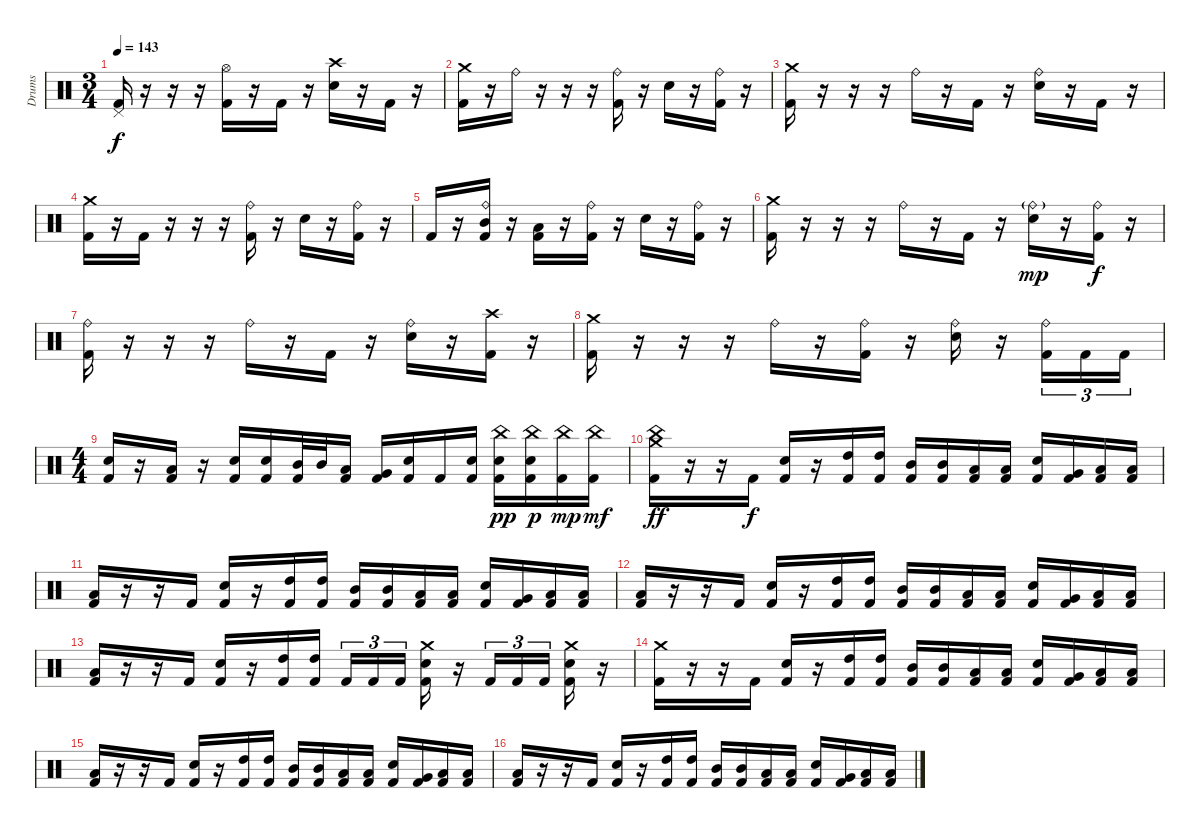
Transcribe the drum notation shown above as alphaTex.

\track ("Drums" "Drums") {instrument percussion}
\staff {score}
\articulation defaults
\ts (3 4)
\tempo 143
\clef neutral
\ks c
("Pedal Hi-Hat (hit)" "Kick (hit) 2").16{dy f} r.16 r.16 r.16 ("Hi-Hat (open)" "Kick (hit) 2").16 r.16 "Kick (hit) 2".16 r.16 ("Crash high (hit)" "Electric Snare (hit)").16 r.16 "Kick (hit) 2".16 r.16 |
("Crash medium (hit)" "Kick (hit) 2").16 r.16 "Ride (bell)".16 r.16 r.16 r.16 ("Ride (bell)" "Kick (hit) 2").16 r.16 "Electric Snare (hit)".16 r.16 ("Ride (bell)" "Kick (hit) 2").16 r.16 |
("Crash medium (hit)" "Kick (hit) 2").16 r.16 r.16 r.16 "Ride (bell)".16 r.16 "Kick (hit) 2".16 r.16 ("Ride (bell)" "Electric Snare (hit)").16 r.16 "Kick (hit) 2".16 r.16 |
\section ("" "")
("Crash medium (hit)" "Kick (hit) 2").16 r.16 "Kick (hit) 2".16 r.16 r.16 r.16 ("Ride (bell)" "Kick (hit) 2").16 r.16 "Electric Snare (hit)".16 r.16 ("Ride (bell)" "Kick (hit) 2").16 r.16 |
"Kick (hit) 2".16 r.16 ("Ride (bell)" "Mid Tom (hit)" "Kick (hit) 2").16 r.16 ("Low Tom (hit)" "Kick (hit) 2").16 r.16 ("Ride (bell)" "Kick (hit) 2").16 r.16 "Electric Snare (hit)".16 r.16 ("Ride (bell)" "Kick (hit) 2").16 r.16 |
("Crash medium (hit)" "Kick (hit) 2").16 r.16 r.16 r.16 "Ride (bell)".16 r.16 "Kick (hit) 2".16 r.16 ("Ride (bell)"{g} "Electric Snare (hit)").16{dy mp} r.16 ("Ride (bell)" "Kick (hit) 2").16{dy f} r.16 |
("Ride (bell)" "Kick (hit) 2").16 r.16 r.16 r.16 "Ride (bell)".16 r.16 "Kick (hit) 2".16 r.16 ("Ride (bell)" "Electric Snare (hit)").16 r.16 ("Crash high (hit)" "Kick (hit) 2").16 r.16 |
("Crash medium (hit)" "Kick (hit) 2").16 r.16 r.16 r.16 "Ride (bell)".16 r.16 ("Ride (bell)" "Kick (hit) 2").16 r.16 ("Ride (bell)" "Electric Snare (hit)").16 r.16 ("Ride (bell)" "Kick (hit) 2").16{tu (3 2)} "Kick (hit) 2".16{tu (3 2)} "Kick (hit) 2".16{tu (3 2)} |
\ts (4 4)
("Electric Snare (hit)" "Kick (hit) 2").16 r.16 ("Low Tom (hit)" "Kick (hit) 2").16 r.16 ("Electric Snare (hit)" "Kick (hit) 2").16 ("Electric Snare (hit)" "Kick (hit) 2").16 ("Mid Tom (hit)" "Kick (hit) 2").32 "Mid Tom (hit)".32 ("Low Tom (hit)" "Kick (hit) 2").16 ("Very Low Tom (hit)" "Kick (hit) 2").16 ("Electric Snare (hit)" "Kick (hit) 2").16 "Kick (hit) 2".16 ("Electric Snare (hit)" "Kick (hit) 2").16 ("China (hit)" "Electric Snare (hit)" "Kick (hit) 2").16{dy pp} ("China (hit)" "Electric Snare (hit)" "Kick (hit) 2").16{dy p} ("China (hit)" "Kick (hit) 2").16{dy mp} ("China (hit)" "Kick (hit) 2").16{dy mf} |
\section ("" "")
("Crash medium (hit)" "China (hit)" "Kick (hit) 2").16{dy ff} r.16 r.16 "Kick (hit) 2".16{dy f} ("Electric Snare (hit)" "Kick (hit) 2").16 r.16 ("High Tom (hit)" "Kick (hit) 2").16 ("High Tom (hit)" "Kick (hit) 2").16 ("Mid Tom (hit)" "Kick (hit) 2").16 ("Mid Tom (hit)" "Kick (hit) 2").16 ("Low Tom (hit)" "Kick (hit) 2").16 ("Low Tom (hit)" "Kick (hit) 2").16 ("Electric Snare (hit)" "Kick (hit) 2").16 ("Very Low Tom (hit)" "Kick (hit) 2").16 ("Low Floor Tom (hit)" "Kick (hit) 2").16 ("Low Floor Tom (hit)" "Kick (hit) 2").16 |
("Low Floor Tom (hit)" "Kick (hit) 2").16 r.16 r.16 "Kick (hit) 2".16 ("Electric Snare (hit)" "Kick (hit) 2").16 r.16 ("High Tom (hit)" "Kick (hit) 2").16 ("High Tom (hit)" "Kick (hit) 2").16 ("Mid Tom (hit)" "Kick (hit) 2").16 ("Mid Tom (hit)" "Kick (hit) 2").16 ("Low Tom (hit)" "Kick (hit) 2").16 ("Low Tom (hit)" "Kick (hit) 2").16 ("Electric Snare (hit)" "Kick (hit) 2").16 ("Very Low Tom (hit)" "Kick (hit) 2").16 ("Low Floor Tom (hit)" "Kick (hit) 2").16 ("Low Floor Tom (hit)" "Kick (hit) 2").16 |
("Low Floor Tom (hit)" "Kick (hit) 2").16 r.16 r.16 "Kick (hit) 2".16 ("Electric Snare (hit)" "Kick (hit) 2").16 r.16 ("High Tom (hit)" "Kick (hit) 2").16 ("High Tom (hit)" "Kick (hit) 2").16 ("Mid Tom (hit)" "Kick (hit) 2").16 ("Mid Tom (hit)" "Kick (hit) 2").16 ("Low Tom (hit)" "Kick (hit) 2").16 ("Low Tom (hit)" "Kick (hit) 2").16 ("Electric Snare (hit)" "Kick (hit) 2").16 ("Very Low Tom (hit)" "Kick (hit) 2").16 ("Low Floor Tom (hit)" "Kick (hit) 2").16 ("Low Floor Tom (hit)" "Kick (hit) 2").16 |
("Low Floor Tom (hit)" "Kick (hit) 2").16 r.16 r.16 "Kick (hit) 2".16 ("Electric Snare (hit)" "Kick (hit) 2").16 r.16 ("High Tom (hit)" "Kick (hit) 2").16 ("High Tom (hit)" "Kick (hit) 2").16 "Kick (hit) 2".16{tu (3 2)} "Kick (hit) 2".16{tu (3 2)} "Kick (hit) 2".16{tu (3 2)} ("Crash medium (hit)" "Electric Snare (hit)" "Kick (hit) 2").16 r.16 "Kick (hit) 2".16{tu (3 2)} "Kick (hit) 2".16{tu (3 2)} "Kick (hit) 2".16{tu (3 2)} ("Crash medium (hit)" "Electric Snare (hit)" "Kick (hit) 2").16 r.16 |
("Crash medium (hit)" "Kick (hit) 2").16 r.16 r.16 "Kick (hit) 2".16 ("Electric Snare (hit)" "Kick (hit) 2").16 r.16 ("High Tom (hit)" "Kick (hit) 2").16 ("High Tom (hit)" "Kick (hit) 2").16 ("Mid Tom (hit)" "Kick (hit) 2").16 ("Mid Tom (hit)" "Kick (hit) 2").16 ("Low Tom (hit)" "Kick (hit) 2").16 ("Low Tom (hit)" "Kick (hit) 2").16 ("Electric Snare (hit)" "Kick (hit) 2").16 ("Very Low Tom (hit)" "Kick (hit) 2").16 ("Low Floor Tom (hit)" "Kick (hit) 2").16 ("Low Floor Tom (hit)" "Kick (hit) 2").16 |
("Low Floor Tom (hit)" "Kick (hit) 2").16 r.16 r.16 "Kick (hit) 2".16 ("Electric Snare (hit)" "Kick (hit) 2").16 r.16 ("High Tom (hit)" "Kick (hit) 2").16 ("High Tom (hit)" "Kick (hit) 2").16 ("Mid Tom (hit)" "Kick (hit) 2").16 ("Mid Tom (hit)" "Kick (hit) 2").16 ("Low Tom (hit)" "Kick (hit) 2").16 ("Low Tom (hit)" "Kick (hit) 2").16 ("Electric Snare (hit)" "Kick (hit) 2").16 ("Very Low Tom (hit)" "Kick (hit) 2").16 ("Low Floor Tom (hit)" "Kick (hit) 2").16 ("Low Floor Tom (hit)" "Kick (hit) 2").16 |
("Low Floor Tom (hit)" "Kick (hit) 2").16 r.16 r.16 "Kick (hit) 2".16 ("Electric Snare (hit)" "Kick (hit) 2").16 r.16 ("High Tom (hit)" "Kick (hit) 2").16 ("High Tom (hit)" "Kick (hit) 2").16 ("Mid Tom (hit)" "Kick (hit) 2").16 ("Mid Tom (hit)" "Kick (hit) 2").16 ("Low Tom (hit)" "Kick (hit) 2").16 ("Low Tom (hit)" "Kick (hit) 2").16 ("Electric Snare (hit)" "Kick (hit) 2").16 ("Very Low Tom (hit)" "Kick (hit) 2").16 ("Low Floor Tom (hit)" "Kick (hit) 2").16 ("Low Floor Tom (hit)" "Kick (hit) 2").16
